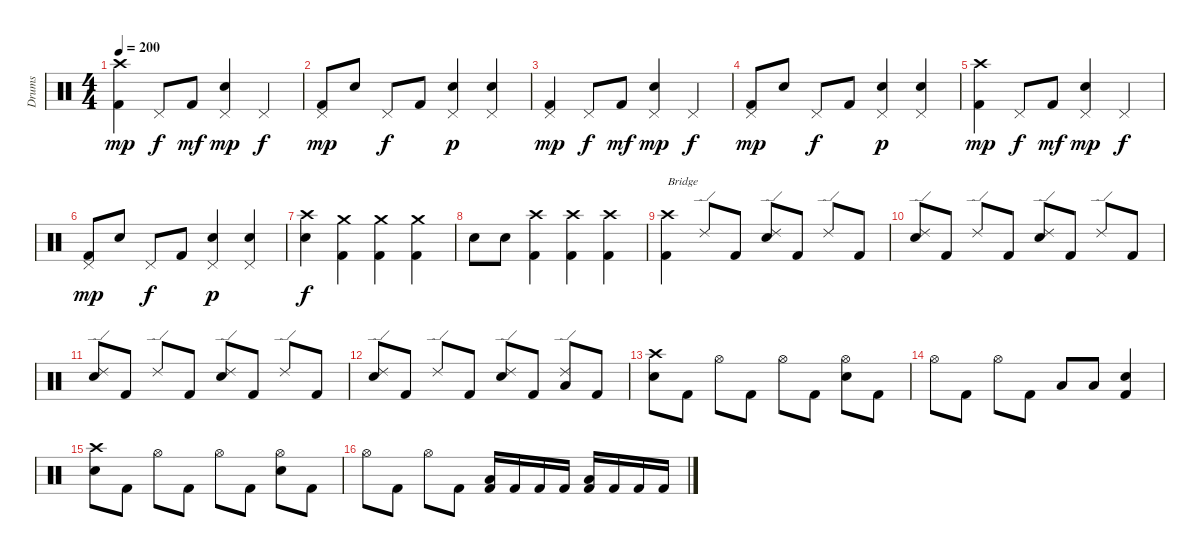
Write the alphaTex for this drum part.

\track ("Drums" "Drums") {instrument percussion}
\staff {score}
\articulation defaults
\ts (4 4)
\tempo 200
\clef neutral
\ks c
("Crash high (hit)" "Kick (hit) 2").4{dy mp} "Pedal Hi-Hat (hit)".8{dy f} "Kick (hit) 2".8{dy mf} ("Pedal Hi-Hat (hit)" "Electric Snare (hit)").4{dy mp} "Pedal Hi-Hat (hit)".4{dy f} |
("Pedal Hi-Hat (hit)" "Kick (hit) 2").8{dy mp} "Electric Snare (hit)".8 "Pedal Hi-Hat (hit)".8{dy f} "Kick (hit) 2".8 ("Pedal Hi-Hat (hit)" "Electric Snare (hit)"{tr (40 32)}).4{dy p} ("Pedal Hi-Hat (hit)" "Electric Snare (hit)"{tr (40 32)}).4 |
("Pedal Hi-Hat (hit)" "Kick (hit) 2").4{dy mp} "Pedal Hi-Hat (hit)".8{dy f} "Kick (hit) 2".8{dy mf} ("Pedal Hi-Hat (hit)" "Electric Snare (hit)").4{dy mp} "Pedal Hi-Hat (hit)".4{dy f} |
("Pedal Hi-Hat (hit)" "Kick (hit) 2").8{dy mp} "Electric Snare (hit)".8 "Pedal Hi-Hat (hit)".8{dy f} "Kick (hit) 2".8 ("Pedal Hi-Hat (hit)" "Electric Snare (hit)"{tr (40 32)}).4{dy p} ("Pedal Hi-Hat (hit)" "Electric Snare (hit)"{tr (40 32)}).4 |
("Crash high (hit)" "Kick (hit) 2").4{dy mp} "Pedal Hi-Hat (hit)".8{dy f} "Kick (hit) 2".8{dy mf} ("Pedal Hi-Hat (hit)" "Electric Snare (hit)").4{dy mp} "Pedal Hi-Hat (hit)".4{dy f} |
("Pedal Hi-Hat (hit)" "Kick (hit) 2").8{dy mp} "Electric Snare (hit)".8 "Pedal Hi-Hat (hit)".8{dy f} "Kick (hit) 2".8 ("Pedal Hi-Hat (hit)" "Electric Snare (hit)"{tr (40 32)}).4{dy p} ("Pedal Hi-Hat (hit)" "Electric Snare (hit)"{tr (40 32)}).4 |
("Crash high (hit)" "Electric Snare (hit)").4{dy f} ("Crash medium (hit)" "Kick (hit) 2").4 ("Crash medium (hit)" "Kick (hit) 2").4 ("Crash medium (hit)" "Kick (hit) 2").4 |
"Electric Snare (hit)".8 "Electric Snare (hit)".8 ("Crash high (hit)" "Kick (hit) 2").4 ("Crash high (hit)" "Kick (hit) 2").4 ("Crash high (hit)" "Kick (hit) 2").4 |
("Crash high (hit)" "Kick (hit) 2").4{txt "Bridge"} "Ride (edge) 2".8 "Kick (hit) 2".8 ("Ride (edge) 2" "Electric Snare (hit)").8 "Kick (hit) 2".8 "Ride (edge) 2".8 "Kick (hit) 2".8 |
("Ride (edge) 2" "Electric Snare (hit)").8 "Kick (hit) 2".8 "Ride (edge) 2".8 "Kick (hit) 2".8 ("Ride (edge) 2" "Electric Snare (hit)").8 "Kick (hit) 2".8 "Ride (edge) 2".8 "Kick (hit) 2".8 |
("Ride (edge) 2" "Electric Snare (hit)").8 "Kick (hit) 2".8 "Ride (edge) 2".8 "Kick (hit) 2".8 ("Ride (edge) 2" "Electric Snare (hit)").8 "Kick (hit) 2".8 "Ride (edge) 2".8 "Kick (hit) 2".8 |
("Ride (edge) 2" "Electric Snare (hit)").8 "Kick (hit) 2".8 "Ride (edge) 2".8 "Kick (hit) 2".8 ("Ride (edge) 2" "Electric Snare (hit)").8 "Kick (hit) 2".8 ("Ride (edge) 2" "Low Tom (hit)").8 "Kick (hit) 2".8 |
("Crash high (hit)" "Electric Snare (hit)").8 "Kick (hit) 2".8 "Hi-Hat (open)".8 "Kick (hit) 2".8 "Hi-Hat (open)".8 "Kick (hit) 2".8 ("Hi-Hat (open)" "Electric Snare (hit)").8 "Kick (hit) 2".8 |
"Hi-Hat (open)".8 "Kick (hit) 2".8 "Hi-Hat (open)".8 "Kick (hit) 2".8 "Low Tom (hit)".8 "Low Tom (hit)".8 ("Electric Snare (hit)" "Kick (hit) 2").4 |
("Crash high (hit)" "Electric Snare (hit)").8 "Kick (hit) 2".8 "Hi-Hat (open)".8 "Kick (hit) 2".8 "Hi-Hat (open)".8 "Kick (hit) 2".8 ("Hi-Hat (open)" "Electric Snare (hit)").8 "Kick (hit) 2".8 |
"Hi-Hat (open)".8 "Kick (hit) 2".8 "Hi-Hat (open)".8 "Kick (hit) 2".8 ("Low Tom (hit)" "Kick (hit) 2").16 "Kick (hit) 2".16 "Kick (hit) 2".16 "Kick (hit) 2".16 ("Low Tom (hit)" "Kick (hit) 2").16 "Kick (hit) 2".16 "Kick (hit) 2".16 "Kick (hit) 2".16
